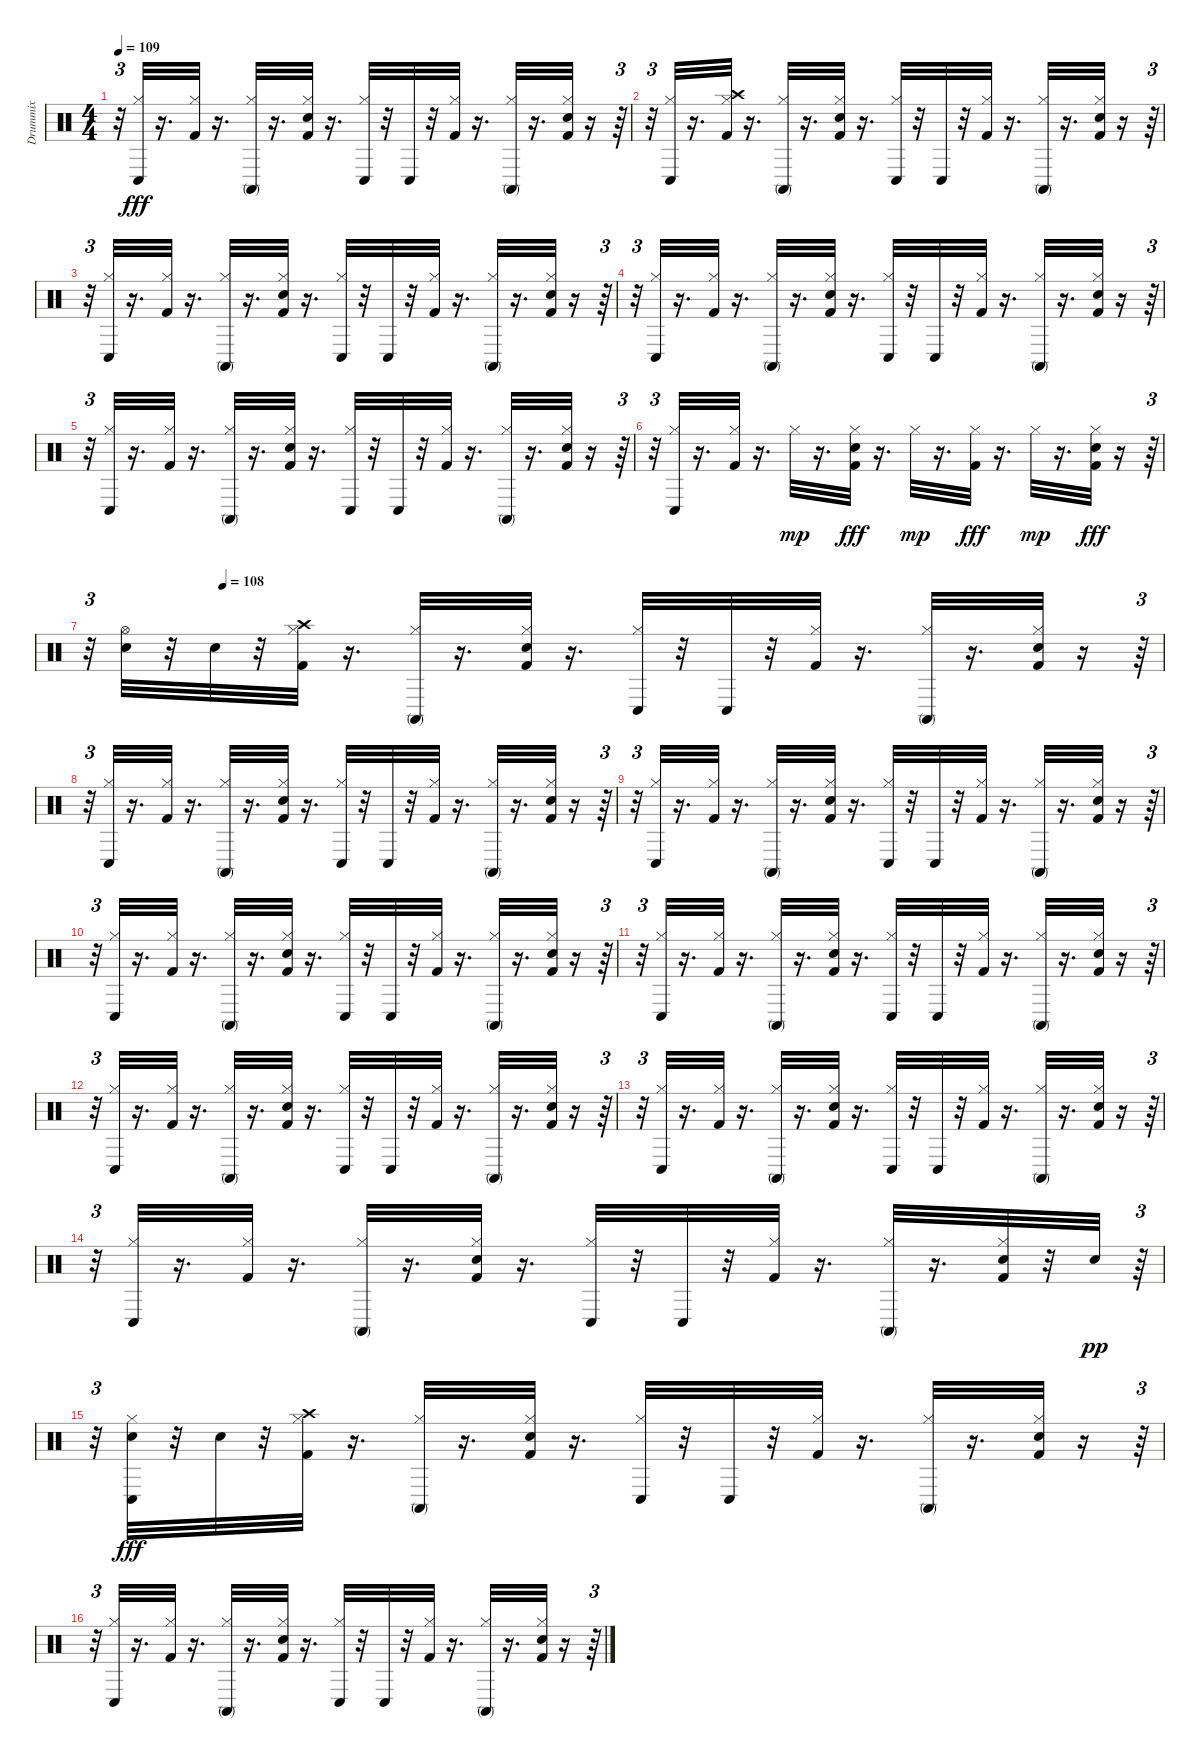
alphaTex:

\track ("Drummix" "Drummix") {instrument percussion}
\staff {score}
\articulation defaults
\ts (4 4)
\tempo 109
\clef neutral
\ks c
r.32{tu (3 2) dy fff} ("Hi-Hat (closed)" "Conga low (hit)").32 r.16{d} ("Kick (hit) 2" "Hi-Hat (closed)").32 r.16{d} ("Hi-Hat (closed)" "Conga high (mute)").32 r.16{d} ("Kick (hit) 2" "Snare (hit) 2" "Hi-Hat (closed)").32 r.16{d} ("Hi-Hat (closed)" "Conga low (hit)").32 r.32 "Conga low (hit)".32 r.32 ("Kick (hit) 2" "Hi-Hat (closed)").32 r.16{d} ("Hi-Hat (closed)" "Conga high (mute)").32 r.16{d} ("Kick (hit) 2" "Snare (hit) 2" "Hi-Hat (closed)").32 r.16 r.64{tu (3 2)} |
r.32{tu (3 2)} ("Hi-Hat (closed)" "Conga low (hit)").32 r.16{d} ("Kick (hit) 2" "Hi-Hat (closed)" "Crash high (hit)").32 r.16{d} ("Hi-Hat (closed)" "Conga high (mute)").32 r.16{d} ("Kick (hit) 2" "Snare (hit) 2" "Hi-Hat (closed)").32 r.16{d} ("Hi-Hat (closed)" "Conga low (hit)").32 r.32 "Conga low (hit)".32 r.32 ("Kick (hit) 2" "Hi-Hat (closed)").32 r.16{d} ("Hi-Hat (closed)" "Conga high (mute)").32 r.16{d} ("Kick (hit) 2" "Snare (hit) 2" "Hi-Hat (closed)").32 r.16 r.64{tu (3 2)} |
r.32{tu (3 2)} ("Hi-Hat (closed)" "Conga low (hit)").32 r.16{d} ("Kick (hit) 2" "Hi-Hat (closed)").32 r.16{d} ("Hi-Hat (closed)" "Conga high (mute)").32 r.16{d} ("Kick (hit) 2" "Snare (hit) 2" "Hi-Hat (closed)").32 r.16{d} ("Hi-Hat (closed)" "Conga low (hit)").32 r.32 "Conga low (hit)".32 r.32 ("Kick (hit) 2" "Hi-Hat (closed)").32 r.16{d} ("Hi-Hat (closed)" "Conga high (mute)").32 r.16{d} ("Kick (hit) 2" "Snare (hit) 2" "Hi-Hat (closed)").32 r.16 r.64{tu (3 2)} |
r.32{tu (3 2)} ("Hi-Hat (closed)" "Conga low (hit)").32 r.16{d} ("Kick (hit) 2" "Hi-Hat (closed)").32 r.16{d} ("Hi-Hat (closed)" "Conga high (mute)").32 r.16{d} ("Kick (hit) 2" "Snare (hit) 2" "Hi-Hat (closed)").32 r.16{d} ("Hi-Hat (closed)" "Conga low (hit)").32 r.32 "Conga low (hit)".32 r.32 ("Kick (hit) 2" "Hi-Hat (closed)").32 r.16{d} ("Hi-Hat (closed)" "Conga high (mute)").32 r.16{d} ("Kick (hit) 2" "Snare (hit) 2" "Hi-Hat (closed)").32 r.16 r.64{tu (3 2)} |
r.32{tu (3 2)} ("Hi-Hat (closed)" "Conga low (hit)").32 r.16{d} ("Kick (hit) 2" "Hi-Hat (closed)").32 r.16{d} ("Hi-Hat (closed)" "Conga high (mute)").32 r.16{d} ("Kick (hit) 2" "Snare (hit) 2" "Hi-Hat (closed)").32 r.16{d} ("Hi-Hat (closed)" "Conga low (hit)").32 r.32 "Conga low (hit)".32 r.32 ("Kick (hit) 2" "Hi-Hat (closed)").32 r.16{d} ("Hi-Hat (closed)" "Conga high (mute)").32 r.16{d} ("Kick (hit) 2" "Snare (hit) 2" "Hi-Hat (closed)").32 r.16 r.64{tu (3 2)} |
r.32{tu (3 2)} ("Hi-Hat (closed)" "Conga low (hit)").32 r.16{d} ("Kick (hit) 2" "Hi-Hat (closed)").32 r.16{d} "Hi-Hat (closed)".32{dy mp} r.16{d} ("Kick (hit) 2" "Snare (hit) 2" "Hi-Hat (closed)").32{dy fff} r.16{d} "Hi-Hat (closed)".32{dy mp} r.16{d} ("Kick (hit) 2" "Hi-Hat (closed)").32{dy fff} r.16{d} "Hi-Hat (closed)".32{dy mp} r.16{d} ("Kick (hit) 2" "Snare (hit) 2" "Hi-Hat (closed)").32{dy fff} r.16 r.64{tu (3 2)} |
\tempo (108 0.125)
r.32{tu (3 2)} ("Snare (hit) 2" "Hi-Hat (open)").32 r.32 "Snare (hit) 2".32 r.32 ("Kick (hit) 2" "Hi-Hat (closed)" "Crash high (hit)").32 r.16{d} ("Hi-Hat (closed)" "Conga high (mute)").32 r.16{d} ("Kick (hit) 2" "Snare (hit) 2" "Hi-Hat (closed)").32 r.16{d} ("Hi-Hat (closed)" "Conga low (hit)").32 r.32 "Conga low (hit)".32 r.32 ("Kick (hit) 2" "Hi-Hat (closed)").32 r.16{d} ("Hi-Hat (closed)" "Conga high (mute)").32 r.16{d} ("Kick (hit) 2" "Snare (hit) 2" "Hi-Hat (closed)").32 r.16 r.64{tu (3 2)} |
r.32{tu (3 2)} ("Hi-Hat (closed)" "Conga low (hit)").32 r.16{d} ("Kick (hit) 2" "Hi-Hat (closed)").32 r.16{d} ("Hi-Hat (closed)" "Conga high (mute)").32 r.16{d} ("Kick (hit) 2" "Snare (hit) 2" "Hi-Hat (closed)").32 r.16{d} ("Hi-Hat (closed)" "Conga low (hit)").32 r.32 "Conga low (hit)".32 r.32 ("Kick (hit) 2" "Hi-Hat (closed)").32 r.16{d} ("Hi-Hat (closed)" "Conga high (mute)").32 r.16{d} ("Kick (hit) 2" "Snare (hit) 2" "Hi-Hat (closed)").32 r.16 r.64{tu (3 2)} |
r.32{tu (3 2)} ("Hi-Hat (closed)" "Conga low (hit)").32 r.16{d} ("Kick (hit) 2" "Hi-Hat (closed)").32 r.16{d} ("Hi-Hat (closed)" "Conga high (mute)").32 r.16{d} ("Kick (hit) 2" "Snare (hit) 2" "Hi-Hat (closed)").32 r.16{d} ("Hi-Hat (closed)" "Conga low (hit)").32 r.32 "Conga low (hit)".32 r.32 ("Kick (hit) 2" "Hi-Hat (closed)").32 r.16{d} ("Hi-Hat (closed)" "Conga high (mute)").32 r.16{d} ("Kick (hit) 2" "Snare (hit) 2" "Hi-Hat (closed)").32 r.16 r.64{tu (3 2)} |
r.32{tu (3 2)} ("Hi-Hat (closed)" "Conga low (hit)").32 r.16{d} ("Kick (hit) 2" "Hi-Hat (closed)").32 r.16{d} ("Hi-Hat (closed)" "Conga high (mute)").32 r.16{d} ("Kick (hit) 2" "Snare (hit) 2" "Hi-Hat (closed)").32 r.16{d} ("Hi-Hat (closed)" "Conga low (hit)").32 r.32 "Conga low (hit)".32 r.32 ("Kick (hit) 2" "Hi-Hat (closed)").32 r.16{d} ("Hi-Hat (closed)" "Conga high (mute)").32 r.16{d} ("Kick (hit) 2" "Snare (hit) 2" "Hi-Hat (closed)").32 r.16 r.64{tu (3 2)} |
r.32{tu (3 2)} ("Hi-Hat (closed)" "Conga low (hit)").32 r.16{d} ("Kick (hit) 2" "Hi-Hat (closed)").32 r.16{d} ("Hi-Hat (closed)" "Conga high (mute)").32 r.16{d} ("Kick (hit) 2" "Snare (hit) 2" "Hi-Hat (closed)").32 r.16{d} ("Hi-Hat (closed)" "Conga low (hit)").32 r.32 "Conga low (hit)".32 r.32 ("Kick (hit) 2" "Hi-Hat (closed)").32 r.16{d} ("Hi-Hat (closed)" "Conga high (mute)").32 r.16{d} ("Kick (hit) 2" "Snare (hit) 2" "Hi-Hat (closed)").32 r.16 r.64{tu (3 2)} |
r.32{tu (3 2)} ("Hi-Hat (closed)" "Conga low (hit)").32 r.16{d} ("Kick (hit) 2" "Hi-Hat (closed)").32 r.16{d} ("Hi-Hat (closed)" "Conga high (mute)").32 r.16{d} ("Kick (hit) 2" "Snare (hit) 2" "Hi-Hat (closed)").32 r.16{d} ("Hi-Hat (closed)" "Conga low (hit)").32 r.32 "Conga low (hit)".32 r.32 ("Kick (hit) 2" "Hi-Hat (closed)").32 r.16{d} ("Hi-Hat (closed)" "Conga high (mute)").32 r.16{d} ("Kick (hit) 2" "Snare (hit) 2" "Hi-Hat (closed)").32 r.16 r.64{tu (3 2)} |
r.32{tu (3 2)} ("Hi-Hat (closed)" "Conga low (hit)").32 r.16{d} ("Kick (hit) 2" "Hi-Hat (closed)").32 r.16{d} ("Hi-Hat (closed)" "Conga high (mute)").32 r.16{d} ("Kick (hit) 2" "Snare (hit) 2" "Hi-Hat (closed)").32 r.16{d} ("Hi-Hat (closed)" "Conga low (hit)").32 r.32 "Conga low (hit)".32 r.32 ("Kick (hit) 2" "Hi-Hat (closed)").32 r.16{d} ("Hi-Hat (closed)" "Conga high (mute)").32 r.16{d} ("Kick (hit) 2" "Snare (hit) 2" "Hi-Hat (closed)").32 r.16 r.64{tu (3 2)} |
r.32{tu (3 2)} ("Hi-Hat (closed)" "Conga low (hit)").32 r.16{d} ("Kick (hit) 2" "Hi-Hat (closed)").32 r.16{d} ("Hi-Hat (closed)" "Conga high (mute)").32 r.16{d} ("Kick (hit) 2" "Snare (hit) 2" "Hi-Hat (closed)").32 r.16{d} ("Hi-Hat (closed)" "Conga low (hit)").32 r.32 "Conga low (hit)".32 r.32 ("Kick (hit) 2" "Hi-Hat (closed)").32 r.16{d} ("Hi-Hat (closed)" "Conga high (mute)").32 r.16{d} ("Kick (hit) 2" "Snare (hit) 2" "Hi-Hat (closed)").32 r.32 "Snare (hit) 2".32{dy pp} r.64{tu (3 2)} |
r.32{tu (3 2)} ("Snare (hit) 2" "Hi-Hat (closed)" "Conga low (hit)").32{dy fff} r.32 "Snare (hit) 2".32 r.32 ("Kick (hit) 2" "Hi-Hat (closed)" "Crash high (hit)").32 r.16{d} ("Hi-Hat (closed)" "Conga high (mute)").32 r.16{d} ("Kick (hit) 2" "Snare (hit) 2" "Hi-Hat (closed)").32 r.16{d} ("Hi-Hat (closed)" "Conga low (hit)").32 r.32 "Conga low (hit)".32 r.32 ("Kick (hit) 2" "Hi-Hat (closed)").32 r.16{d} ("Hi-Hat (closed)" "Conga high (mute)").32 r.16{d} ("Kick (hit) 2" "Snare (hit) 2" "Hi-Hat (closed)").32 r.16 r.64{tu (3 2)} |
r.32{tu (3 2)} ("Hi-Hat (closed)" "Conga low (hit)").32 r.16{d} ("Kick (hit) 2" "Hi-Hat (closed)").32 r.16{d} ("Hi-Hat (closed)" "Conga high (mute)").32 r.16{d} ("Kick (hit) 2" "Snare (hit) 2" "Hi-Hat (closed)").32 r.16{d} ("Hi-Hat (closed)" "Conga low (hit)").32 r.32 "Conga low (hit)".32 r.32 ("Kick (hit) 2" "Hi-Hat (closed)").32 r.16{d} ("Hi-Hat (closed)" "Conga high (mute)").32 r.16{d} ("Kick (hit) 2" "Snare (hit) 2" "Hi-Hat (closed)").32 r.16 r.64{tu (3 2)}
